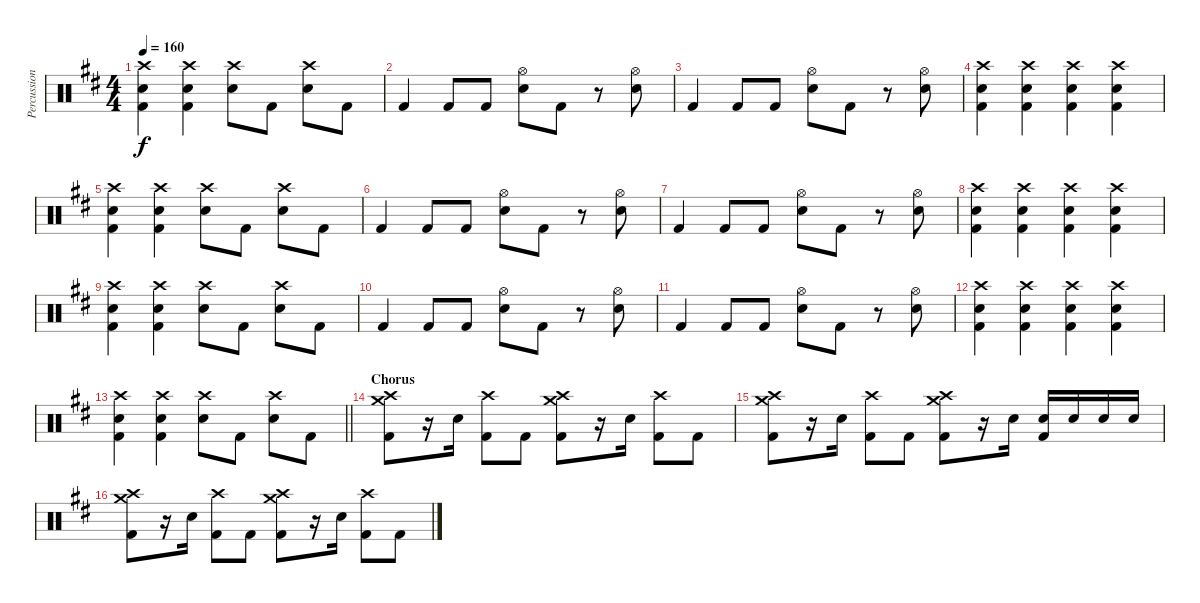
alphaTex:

\track ("Percussion" "Percussion") {instrument percussion}
\staff {score}
\articulation defaults
\ts (4 4)
\tempo 160
\clef neutral
\ks d
("Crash high (hit)" "Electric Snare (hit)" "Kick (hit) 2").4{dy f} ("Crash high (hit)" "Electric Snare (hit)" "Kick (hit) 2").4 ("Crash high (hit)" "Electric Snare (hit)").8 "Kick (hit) 2".8 ("Crash high (hit)" "Electric Snare (hit)").8 "Kick (hit) 2".8 |
"Kick (hit) 2".4 "Kick (hit) 2".8 "Kick (hit) 2".8 ("Hi-Hat (open)" "Electric Snare (hit)").8 "Kick (hit) 2".8 r.8 ("Hi-Hat (open)" "Electric Snare (hit)").8 |
"Kick (hit) 2".4 "Kick (hit) 2".8 "Kick (hit) 2".8 ("Hi-Hat (open)" "Electric Snare (hit)").8 "Kick (hit) 2".8 r.8 ("Hi-Hat (open)" "Electric Snare (hit)").8 |
("Crash high (hit)" "Electric Snare (hit)" "Kick (hit) 2").4 ("Crash high (hit)" "Electric Snare (hit)" "Kick (hit) 2").4 ("Crash high (hit)" "Electric Snare (hit)" "Kick (hit) 2").4 ("Crash high (hit)" "Electric Snare (hit)" "Kick (hit) 2").4 |
("Crash high (hit)" "Electric Snare (hit)" "Kick (hit) 2").4 ("Crash high (hit)" "Electric Snare (hit)" "Kick (hit) 2").4 ("Crash high (hit)" "Electric Snare (hit)").8 "Kick (hit) 2".8 ("Crash high (hit)" "Electric Snare (hit)").8 "Kick (hit) 2".8 |
"Kick (hit) 2".4 "Kick (hit) 2".8 "Kick (hit) 2".8 ("Hi-Hat (open)" "Electric Snare (hit)").8 "Kick (hit) 2".8 r.8 ("Hi-Hat (open)" "Electric Snare (hit)").8 |
"Kick (hit) 2".4 "Kick (hit) 2".8 "Kick (hit) 2".8 ("Hi-Hat (open)" "Electric Snare (hit)").8 "Kick (hit) 2".8 r.8 ("Hi-Hat (open)" "Electric Snare (hit)").8 |
("Crash high (hit)" "Electric Snare (hit)" "Kick (hit) 2").4 ("Crash high (hit)" "Electric Snare (hit)" "Kick (hit) 2").4 ("Crash high (hit)" "Electric Snare (hit)" "Kick (hit) 2").4 ("Crash high (hit)" "Electric Snare (hit)" "Kick (hit) 2").4 |
("Crash high (hit)" "Electric Snare (hit)" "Kick (hit) 2").4 ("Crash high (hit)" "Electric Snare (hit)" "Kick (hit) 2").4 ("Crash high (hit)" "Electric Snare (hit)").8 "Kick (hit) 2".8 ("Crash high (hit)" "Electric Snare (hit)").8 "Kick (hit) 2".8 |
"Kick (hit) 2".4 "Kick (hit) 2".8 "Kick (hit) 2".8 ("Hi-Hat (open)" "Electric Snare (hit)").8 "Kick (hit) 2".8 r.8 ("Hi-Hat (open)" "Electric Snare (hit)").8 |
"Kick (hit) 2".4 "Kick (hit) 2".8 "Kick (hit) 2".8 ("Hi-Hat (open)" "Electric Snare (hit)").8 "Kick (hit) 2".8 r.8 ("Hi-Hat (open)" "Electric Snare (hit)").8 |
("Crash high (hit)" "Electric Snare (hit)" "Kick (hit) 2").4 ("Crash high (hit)" "Electric Snare (hit)" "Kick (hit) 2").4 ("Crash high (hit)" "Electric Snare (hit)" "Kick (hit) 2").4 ("Crash high (hit)" "Electric Snare (hit)" "Kick (hit) 2").4 |
\barLineRight lightlight
("Crash high (hit)" "Electric Snare (hit)" "Kick (hit) 2").4 ("Crash high (hit)" "Electric Snare (hit)" "Kick (hit) 2").4 ("Crash high (hit)" "Electric Snare (hit)").8 "Kick (hit) 2".8 ("Crash high (hit)" "Electric Snare (hit)").8 "Kick (hit) 2".8 |
\section ("" "Chorus")
("Crash medium (hit)" "Crash high (hit)" "Kick (hit) 2").8 r.16 "Electric Snare (hit)".16 ("Crash high (hit)" "Kick (hit) 2").8 "Kick (hit) 2".8 ("Crash medium (hit)" "Crash high (hit)" "Kick (hit) 2").8 r.16 "Electric Snare (hit)".16 ("Crash high (hit)" "Kick (hit) 2").8 "Kick (hit) 2".8 |
("Crash medium (hit)" "Crash high (hit)" "Kick (hit) 2").8 r.16 "Electric Snare (hit)".16 ("Crash high (hit)" "Kick (hit) 2").8 "Kick (hit) 2".8 ("Crash medium (hit)" "Crash high (hit)" "Kick (hit) 2").8 r.16 "Electric Snare (hit)".16 ("Electric Snare (hit)" "Kick (hit) 2").16 "Electric Snare (hit)".16 "Electric Snare (hit)".16 "Electric Snare (hit)".16 |
("Crash medium (hit)" "Crash high (hit)" "Kick (hit) 2").8 r.16 "Electric Snare (hit)".16 ("Crash high (hit)" "Kick (hit) 2").8 "Kick (hit) 2".8 ("Crash medium (hit)" "Crash high (hit)" "Kick (hit) 2").8 r.16 "Electric Snare (hit)".16 ("Crash high (hit)" "Kick (hit) 2").8 "Kick (hit) 2".8
